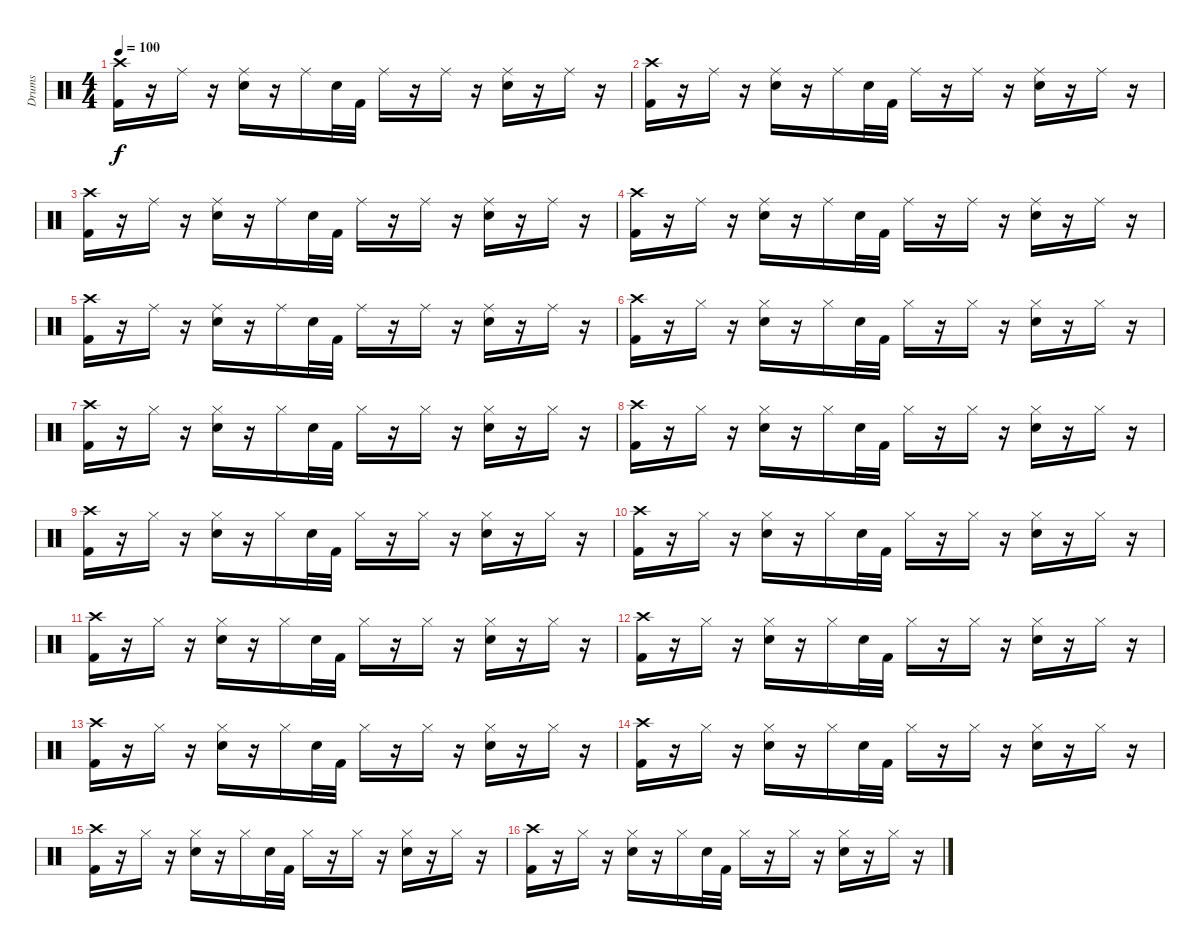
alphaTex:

\track ("Drums" "Drums") {instrument percussion}
\staff {score}
\articulation defaults
\ts (4 4)
\tempo 100
\clef neutral
\ks c
("Crash high (hit)" "Kick (hit) 2").16{dy f} r.16 "Ride (middle)".16 r.16 ("Ride (middle)" "Snare (hit) 2").16 r.16 "Ride (middle)".16 "Snare (hit) 2".32 "Kick (hit) 2".32 "Ride (middle)".16 r.16 "Ride (middle)".16 r.16 ("Ride (middle)" "Snare (hit) 2").16 r.16 "Ride (middle)".16 r.16 |
("Crash high (hit)" "Kick (hit) 2").16 r.16 "Ride (middle)".16 r.16 ("Ride (middle)" "Snare (hit) 2").16 r.16 "Ride (middle)".16 "Snare (hit) 2".32 "Kick (hit) 2".32 "Ride (middle)".16 r.16 "Ride (middle)".16 r.16 ("Ride (middle)" "Snare (hit) 2").16 r.16 "Ride (middle)".16 r.16 |
("Crash high (hit)" "Kick (hit) 2").16 r.16 "Ride (middle)".16 r.16 ("Ride (middle)" "Snare (hit) 2").16 r.16 "Ride (middle)".16 "Snare (hit) 2".32 "Kick (hit) 2".32 "Ride (middle)".16 r.16 "Ride (middle)".16 r.16 ("Ride (middle)" "Snare (hit) 2").16 r.16 "Ride (middle)".16 r.16 |
("Crash high (hit)" "Kick (hit) 2").16 r.16 "Ride (middle)".16 r.16 ("Ride (middle)" "Snare (hit) 2").16 r.16 "Ride (middle)".16 "Snare (hit) 2".32 "Kick (hit) 2".32 "Ride (middle)".16 r.16 "Ride (middle)".16 r.16 ("Ride (middle)" "Snare (hit) 2").16 r.16 "Ride (middle)".16 r.16 |
("Crash high (hit)" "Kick (hit) 2").16 r.16 "Ride (middle)".16 r.16 ("Ride (middle)" "Snare (hit) 2").16 r.16 "Ride (middle)".16 "Snare (hit) 2".32 "Kick (hit) 2".32 "Ride (middle)".16 r.16 "Ride (middle)".16 r.16 ("Ride (middle)" "Snare (hit) 2").16 r.16 "Ride (middle)".16 r.16 |
("Crash high (hit)" "Kick (hit) 2").16 r.16 "Hi-Hat (closed)".16 r.16 ("Hi-Hat (closed)" "Snare (hit) 2").16 r.16 "Hi-Hat (closed)".16 "Snare (hit) 2".32 "Kick (hit) 2".32 "Hi-Hat (closed)".16 r.16 "Hi-Hat (closed)".16 r.16 ("Hi-Hat (closed)" "Snare (hit) 2").16 r.16 "Hi-Hat (closed)".16 r.16 |
("Crash high (hit)" "Kick (hit) 2").16 r.16 "Hi-Hat (closed)".16 r.16 ("Hi-Hat (closed)" "Snare (hit) 2").16 r.16 "Hi-Hat (closed)".16 "Snare (hit) 2".32 "Kick (hit) 2".32 "Hi-Hat (closed)".16 r.16 "Hi-Hat (closed)".16 r.16 ("Hi-Hat (closed)" "Snare (hit) 2").16 r.16 "Hi-Hat (closed)".16 r.16 |
("Crash high (hit)" "Kick (hit) 2").16 r.16 "Hi-Hat (closed)".16 r.16 ("Hi-Hat (closed)" "Snare (hit) 2").16 r.16 "Hi-Hat (closed)".16 "Snare (hit) 2".32 "Kick (hit) 2".32 "Hi-Hat (closed)".16 r.16 "Hi-Hat (closed)".16 r.16 ("Hi-Hat (closed)" "Snare (hit) 2").16 r.16 "Hi-Hat (closed)".16 r.16 |
("Crash high (hit)" "Kick (hit) 2").16 r.16 "Hi-Hat (closed)".16 r.16 ("Hi-Hat (closed)" "Snare (hit) 2").16 r.16 "Hi-Hat (closed)".16 "Snare (hit) 2".32 "Kick (hit) 2".32 "Hi-Hat (closed)".16 r.16 "Hi-Hat (closed)".16 r.16 ("Hi-Hat (closed)" "Snare (hit) 2").16 r.16 "Hi-Hat (closed)".16 r.16 |
("Crash high (hit)" "Kick (hit) 2").16 r.16 "Hi-Hat (closed)".16 r.16 ("Hi-Hat (closed)" "Snare (hit) 2").16 r.16 "Hi-Hat (closed)".16 "Snare (hit) 2".32 "Kick (hit) 2".32 "Hi-Hat (closed)".16 r.16 "Hi-Hat (closed)".16 r.16 ("Hi-Hat (closed)" "Snare (hit) 2").16 r.16 "Hi-Hat (closed)".16 r.16 |
("Crash high (hit)" "Kick (hit) 2").16 r.16 "Hi-Hat (closed)".16 r.16 ("Hi-Hat (closed)" "Snare (hit) 2").16 r.16 "Hi-Hat (closed)".16 "Snare (hit) 2".32 "Kick (hit) 2".32 "Hi-Hat (closed)".16 r.16 "Hi-Hat (closed)".16 r.16 ("Hi-Hat (closed)" "Snare (hit) 2").16 r.16 "Hi-Hat (closed)".16 r.16 |
("Crash high (hit)" "Kick (hit) 2").16 r.16 "Hi-Hat (closed)".16 r.16 ("Hi-Hat (closed)" "Snare (hit) 2").16 r.16 "Hi-Hat (closed)".16 "Snare (hit) 2".32 "Kick (hit) 2".32 "Hi-Hat (closed)".16 r.16 "Hi-Hat (closed)".16 r.16 ("Hi-Hat (closed)" "Snare (hit) 2").16 r.16 "Hi-Hat (closed)".16 r.16 |
("Crash high (hit)" "Kick (hit) 2").16 r.16 "Hi-Hat (closed)".16 r.16 ("Hi-Hat (closed)" "Snare (hit) 2").16 r.16 "Hi-Hat (closed)".16 "Snare (hit) 2".32 "Kick (hit) 2".32 "Hi-Hat (closed)".16 r.16 "Hi-Hat (closed)".16 r.16 ("Hi-Hat (closed)" "Snare (hit) 2").16 r.16 "Hi-Hat (closed)".16 r.16 |
("Crash high (hit)" "Kick (hit) 2").16 r.16 "Hi-Hat (closed)".16 r.16 ("Hi-Hat (closed)" "Snare (hit) 2").16 r.16 "Hi-Hat (closed)".16 "Snare (hit) 2".32 "Kick (hit) 2".32 "Hi-Hat (closed)".16 r.16 "Hi-Hat (closed)".16 r.16 ("Hi-Hat (closed)" "Snare (hit) 2").16 r.16 "Hi-Hat (closed)".16 r.16 |
("Crash high (hit)" "Kick (hit) 2").16 r.16 "Hi-Hat (closed)".16 r.16 ("Hi-Hat (closed)" "Snare (hit) 2").16 r.16 "Hi-Hat (closed)".16 "Snare (hit) 2".32 "Kick (hit) 2".32 "Hi-Hat (closed)".16 r.16 "Hi-Hat (closed)".16 r.16 ("Hi-Hat (closed)" "Snare (hit) 2").16 r.16 "Hi-Hat (closed)".16 r.16 |
("Crash high (hit)" "Kick (hit) 2").16 r.16 "Hi-Hat (closed)".16 r.16 ("Hi-Hat (closed)" "Snare (hit) 2").16 r.16 "Hi-Hat (closed)".16 "Snare (hit) 2".32 "Kick (hit) 2".32 "Hi-Hat (closed)".16 r.16 "Hi-Hat (closed)".16 r.16 ("Hi-Hat (closed)" "Snare (hit) 2").16 r.16 "Hi-Hat (closed)".16 r.16
